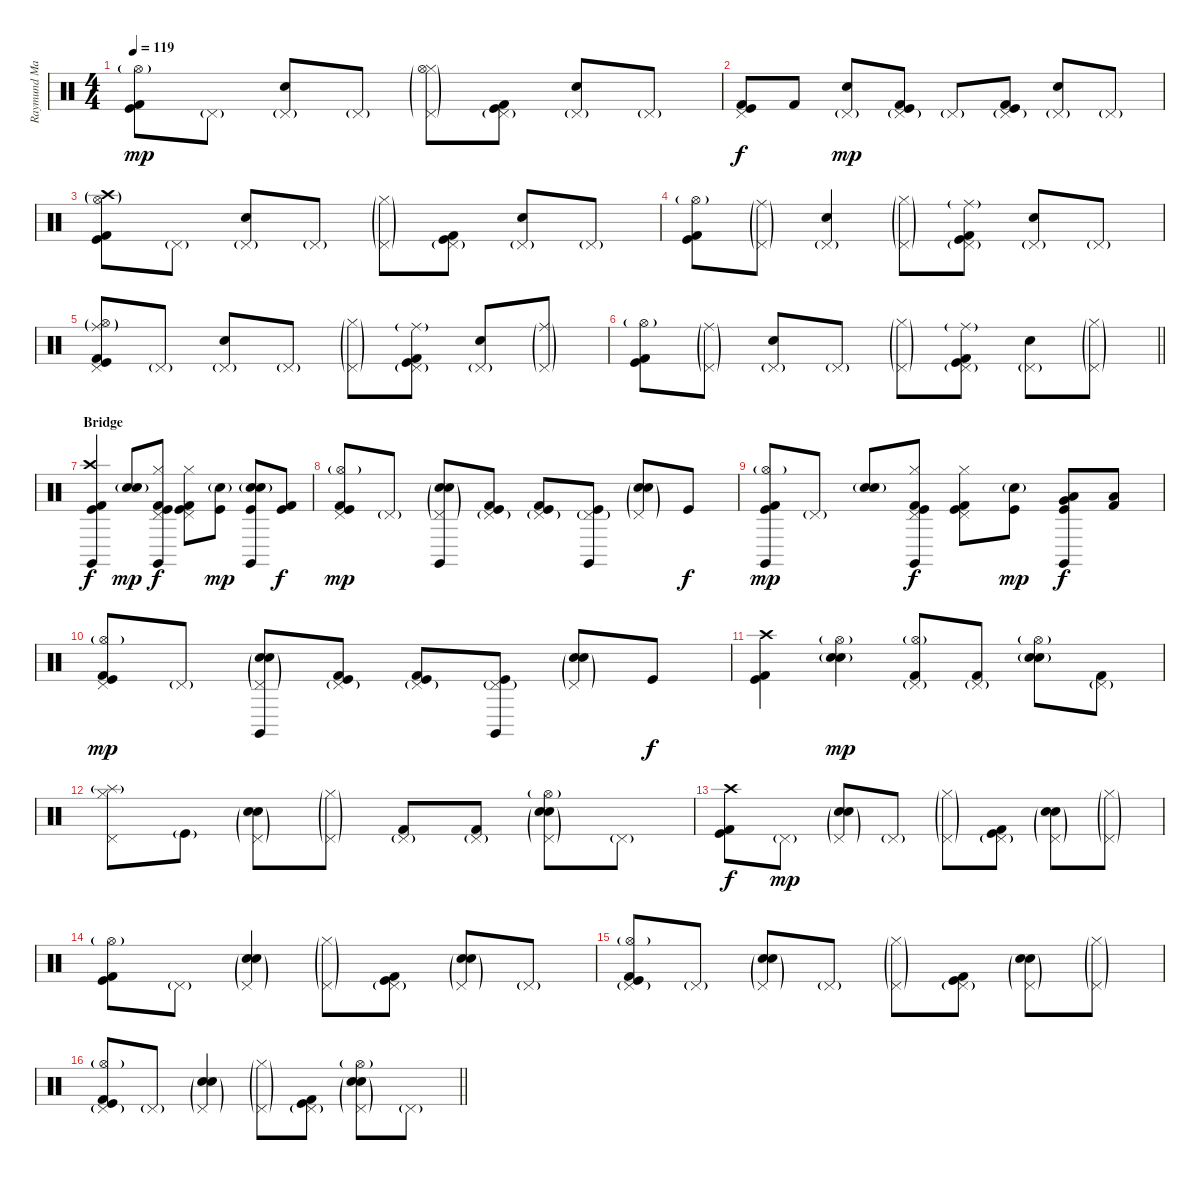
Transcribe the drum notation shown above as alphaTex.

\track ("Raymund Marasigan(Drums)" "Raymund Ma") {instrument percussion}
\staff {score}
\articulation defaults
\ts (4 4)
\tempo 119
\clef neutral
\ks c
("Kick (hit) 2" "Kick (hit)" "Hi-Hat (open)"{g}).8{dy mp} "Pedal Hi-Hat (hit)"{g}.8 ("Pedal Hi-Hat (hit)"{g} "Electric Snare (hit)").8 "Pedal Hi-Hat (hit)"{g}.8 ("Pedal Hi-Hat (hit)"{g} "Hi-Hat (closed)"{g} "Hi-Hat (open)"{g}).8 ("Pedal Hi-Hat (hit)"{g} "Kick (hit) 2" "Kick (hit)").8 ("Pedal Hi-Hat (hit)"{g} "Electric Snare (hit)").8 "Pedal Hi-Hat (hit)"{g}.8 |
("Kick (hit) 2" "Kick (hit)" "Pedal Hi-Hat (hit)").8{dy f} "Kick (hit) 2".8 ("Pedal Hi-Hat (hit)"{g} "Electric Snare (hit)").8{dy mp} ("Pedal Hi-Hat (hit)"{g} "Kick (hit) 2" "Kick (hit)").8 "Pedal Hi-Hat (hit)"{g}.8 ("Pedal Hi-Hat (hit)"{g} "Kick (hit) 2" "Kick (hit)").8 ("Pedal Hi-Hat (hit)"{g} "Electric Snare (hit)").8 "Pedal Hi-Hat (hit)"{g}.8 |
("Kick (hit) 2" "Kick (hit)" "Hi-Hat (open)"{g} "Crash high (hit)"{g}).8 "Pedal Hi-Hat (hit)"{g}.8 ("Pedal Hi-Hat (hit)"{g} "Electric Snare (hit)").8 "Pedal Hi-Hat (hit)"{g}.8 ("Pedal Hi-Hat (hit)"{g} "Hi-Hat (closed)"{g}).8 ("Pedal Hi-Hat (hit)"{g} "Kick (hit) 2" "Kick (hit)").8 ("Pedal Hi-Hat (hit)"{g} "Electric Snare (hit)").8 "Pedal Hi-Hat (hit)"{g}.8 |
("Kick (hit) 2" "Kick (hit)" "Hi-Hat (open)"{g}).8 ("Pedal Hi-Hat (hit)"{g} "Ride (middle)"{g}).8 ("Pedal Hi-Hat (hit)"{g} "Electric Snare (hit)").4 ("Pedal Hi-Hat (hit)"{g} "Hi-Hat (closed)"{g}).8 ("Pedal Hi-Hat (hit)"{g} "Kick (hit) 2" "Kick (hit)" "Ride (middle)"{g}).8 ("Pedal Hi-Hat (hit)"{g} "Electric Snare (hit)").8 "Pedal Hi-Hat (hit)"{g}.8 |
("Kick (hit) 2" "Kick (hit)" "Hi-Hat (open)"{g} "Ride (middle)"{g} "Pedal Hi-Hat (hit)").8 "Pedal Hi-Hat (hit)"{g}.8 ("Pedal Hi-Hat (hit)"{g} "Electric Snare (hit)").8 "Pedal Hi-Hat (hit)"{g}.8 ("Pedal Hi-Hat (hit)"{g} "Hi-Hat (closed)"{g}).8 ("Pedal Hi-Hat (hit)"{g} "Kick (hit) 2" "Kick (hit)" "Ride (middle)"{g}).8 ("Pedal Hi-Hat (hit)"{g} "Electric Snare (hit)").8 ("Pedal Hi-Hat (hit)"{g} "Ride (middle)"{g}).8 |
\barLineRight lightlight
("Kick (hit) 2" "Kick (hit)" "Hi-Hat (open)"{g}).8 ("Pedal Hi-Hat (hit)"{g} "Ride (middle)"{g}).8 ("Pedal Hi-Hat (hit)"{g} "Electric Snare (hit)").8 "Pedal Hi-Hat (hit)"{g}.8 ("Pedal Hi-Hat (hit)"{g} "Hi-Hat (closed)"{g}).8 ("Pedal Hi-Hat (hit)"{g} "Kick (hit) 2" "Kick (hit)" "Ride (middle)"{g}).8 ("Pedal Hi-Hat (hit)"{g} "Electric Snare (hit)").8 ("Pedal Hi-Hat (hit)"{g} "Hi-Hat (closed)"{g}).8 |
\section ("" "Bridge")
("Crash high (hit)" "Kick (hit) 2" "Kick (hit)" "Claves (hit)").4{dy f} ("Electric Snare (hit)" "Snare (hit) 2"{g}).8{dy mp} ("Pedal Hi-Hat (hit)" "Hi-Hat (closed)" "Kick (hit) 2" "Kick (hit)" "Claves (hit)").8{dy f} ("Pedal Hi-Hat (hit)" "Hi-Hat (closed)" "Kick (hit) 2" "Kick (hit)").8 ("Kick (hit)" "Electric Snare (hit)"{g}).8{dy mp} ("Kick (hit)" "Electric Snare (hit)" "Snare (hit) 2"{g} "Claves (hit)").8 ("Kick (hit) 2" "Kick (hit)").8{dy f} |
("Pedal Hi-Hat (hit)" "Kick (hit) 2" "Kick (hit)" "Hi-Hat (open)"{g}).8{dy mp} "Pedal Hi-Hat (hit)"{g}.8 ("Pedal Hi-Hat (hit)"{g} "Electric Snare (hit)" "Snare (hit) 2"{g} "Claves (hit)").8 ("Pedal Hi-Hat (hit)"{g} "Kick (hit) 2" "Kick (hit)").8 ("Pedal Hi-Hat (hit)"{g} "Kick (hit) 2" "Kick (hit)").8 ("Pedal Hi-Hat (hit)"{g} "Kick (hit)" "Claves (hit)").8 ("Pedal Hi-Hat (hit)"{g} "Electric Snare (hit)" "Snare (hit) 2"{g}).8 "Kick (hit)".8{dy f} |
("Hi-Hat (open)"{g} "Kick (hit) 2" "Kick (hit)" "Claves (hit)").8{dy mp} "Pedal Hi-Hat (hit)"{g}.8 ("Electric Snare (hit)" "Snare (hit) 2"{g}).8 ("Pedal Hi-Hat (hit)" "Hi-Hat (closed)" "Kick (hit) 2" "Kick (hit)" "Claves (hit)").8{dy f} ("Pedal Hi-Hat (hit)" "Hi-Hat (closed)" "Kick (hit) 2" "Kick (hit)").8 ("Kick (hit)" "Electric Snare (hit)"{g}).8{dy mp} ("Kick (hit)" "Low Tom (hit)" "Very Low Tom (hit)" "Claves (hit)").8{dy f} ("Kick (hit) 2" "Low Floor Tom (hit)").8 |
("Pedal Hi-Hat (hit)" "Kick (hit) 2" "Kick (hit)" "Hi-Hat (open)"{g}).8{dy mp} "Pedal Hi-Hat (hit)"{g}.8 ("Pedal Hi-Hat (hit)"{g} "Electric Snare (hit)" "Snare (hit) 2"{g} "Claves (hit)").8 ("Pedal Hi-Hat (hit)"{g} "Kick (hit) 2" "Kick (hit)").8 ("Pedal Hi-Hat (hit)"{g} "Kick (hit) 2" "Kick (hit)").8 ("Pedal Hi-Hat (hit)"{g} "Kick (hit)" "Claves (hit)").8 ("Pedal Hi-Hat (hit)"{g} "Electric Snare (hit)" "Snare (hit) 2"{g}).8 "Kick (hit)".8{dy f} |
("Crash high (hit)" "Kick (hit) 2" "Kick (hit)").4 ("Electric Snare (hit)" "Snare (hit) 2"{g} "Hi-Hat (open)"{g}).4{dy mp} ("Pedal Hi-Hat (hit)"{g} "Kick (hit) 2" "Hi-Hat (open)"{g}).8 ("Pedal Hi-Hat (hit)"{g} "Kick (hit) 2").8 ("Electric Snare (hit)" "Snare (hit) 2"{g} "Hi-Hat (open)"{g}).8 ("Pedal Hi-Hat (hit)"{g} "Kick (hit) 2").8 |
("Pedal Hi-Hat (hit)" "Hi-Hat (closed)" "Splash (hit)"{g}).8 "Kick (hit)"{g}.8 ("Pedal Hi-Hat (hit)"{g} "Electric Snare (hit)" "Snare (hit) 2"{g}).8 ("Pedal Hi-Hat (hit)"{g} "Hi-Hat (closed)"{g}).8 ("Pedal Hi-Hat (hit)"{g} "Kick (hit) 2").8 ("Pedal Hi-Hat (hit)"{g} "Kick (hit) 2").8 ("Pedal Hi-Hat (hit)"{g} "Electric Snare (hit)" "Snare (hit) 2"{g} "Hi-Hat (open)"{g}).8 "Pedal Hi-Hat (hit)"{g}.8 |
("Crash high (hit)" "Kick (hit) 2" "Kick (hit)").8{dy f} "Pedal Hi-Hat (hit)"{g}.8{dy mp} ("Pedal Hi-Hat (hit)"{g} "Electric Snare (hit)" "Snare (hit) 2"{g}).8 "Pedal Hi-Hat (hit)"{g}.8 ("Pedal Hi-Hat (hit)"{g} "Hi-Hat (closed)"{g}).8 ("Pedal Hi-Hat (hit)"{g} "Kick (hit) 2" "Kick (hit)").8 ("Pedal Hi-Hat (hit)"{g} "Electric Snare (hit)" "Snare (hit) 2"{g}).8 ("Pedal Hi-Hat (hit)"{g} "Hi-Hat (closed)"{g}).8 |
("Kick (hit) 2" "Kick (hit)" "Hi-Hat (open)"{g}).8 "Pedal Hi-Hat (hit)"{g}.8 ("Pedal Hi-Hat (hit)"{g} "Electric Snare (hit)" "Snare (hit) 2"{g}).4 ("Pedal Hi-Hat (hit)"{g} "Hi-Hat (closed)"{g}).8 ("Pedal Hi-Hat (hit)"{g} "Kick (hit) 2" "Kick (hit)").8 ("Pedal Hi-Hat (hit)"{g} "Electric Snare (hit)" "Snare (hit) 2"{g}).8 "Pedal Hi-Hat (hit)"{g}.8 |
("Pedal Hi-Hat (hit)"{g} "Kick (hit) 2" "Kick (hit)" "Hi-Hat (open)"{g}).8 "Pedal Hi-Hat (hit)"{g}.8 ("Pedal Hi-Hat (hit)"{g} "Electric Snare (hit)" "Snare (hit) 2"{g}).8 "Pedal Hi-Hat (hit)"{g}.8 ("Pedal Hi-Hat (hit)"{g} "Hi-Hat (closed)"{g}).8 ("Pedal Hi-Hat (hit)"{g} "Kick (hit) 2" "Kick (hit)").8 ("Pedal Hi-Hat (hit)"{g} "Electric Snare (hit)" "Snare (hit) 2"{g}).8 ("Pedal Hi-Hat (hit)"{g} "Hi-Hat (closed)"{g}).8 |
\barLineRight lightlight
("Pedal Hi-Hat (hit)"{g} "Kick (hit) 2" "Kick (hit)" "Hi-Hat (open)"{g}).8 "Pedal Hi-Hat (hit)"{g}.8 ("Pedal Hi-Hat (hit)"{g} "Electric Snare (hit)" "Snare (hit) 2"{g}).4 ("Pedal Hi-Hat (hit)"{g} "Hi-Hat (closed)"{g}).8 ("Pedal Hi-Hat (hit)"{g} "Kick (hit) 2" "Kick (hit)").8 ("Pedal Hi-Hat (hit)"{g} "Electric Snare (hit)" "Snare (hit) 2"{g} "Hi-Hat (open)"{g}).8 "Pedal Hi-Hat (hit)"{g}.8
